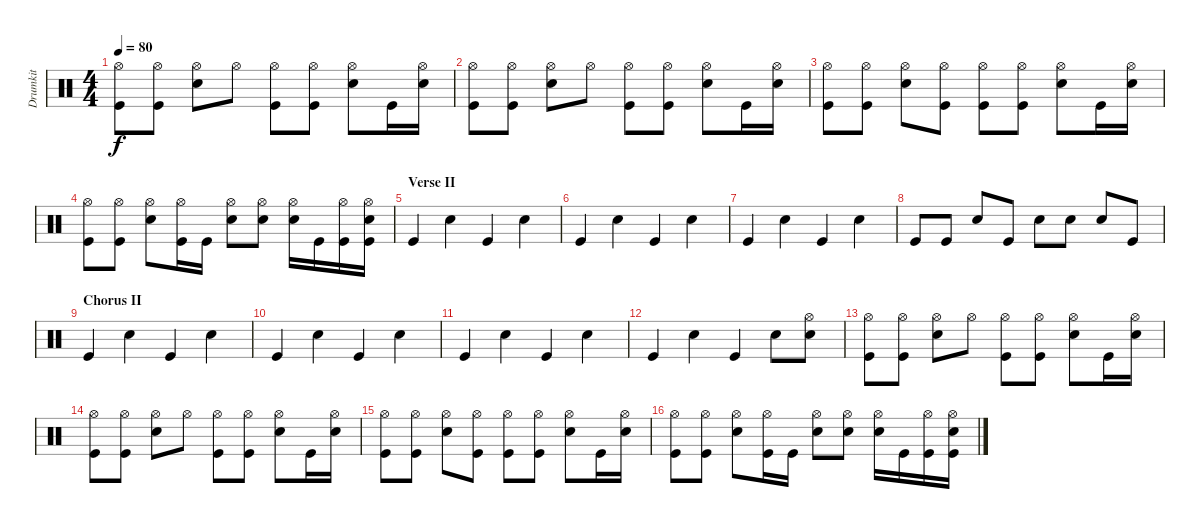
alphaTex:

\track ("Drumkit" "Drumkit") {instrument percussion}
\staff {score}
\articulation defaults
\ts (4 4)
\tempo 80
\clef neutral
\ks c
("Hi-Hat (open)" "Kick (hit)").8{dy f} ("Hi-Hat (open)" "Kick (hit)").8 ("Hi-Hat (open)" "Snare (hit) 2").8 "Hi-Hat (open)".8 ("Hi-Hat (open)" "Kick (hit)").8 ("Hi-Hat (open)" "Kick (hit)").8 ("Hi-Hat (open)" "Snare (hit) 2").8 "Kick (hit)".16 ("Hi-Hat (open)" "Snare (hit) 2").16 |
("Hi-Hat (open)" "Kick (hit)").8 ("Hi-Hat (open)" "Kick (hit)").8 ("Hi-Hat (open)" "Snare (hit) 2").8 "Hi-Hat (open)".8 ("Hi-Hat (open)" "Kick (hit)").8 ("Hi-Hat (open)" "Kick (hit)").8 ("Hi-Hat (open)" "Snare (hit) 2").8 "Kick (hit)".16 ("Hi-Hat (open)" "Snare (hit) 2").16 |
("Hi-Hat (open)" "Kick (hit)").8 ("Hi-Hat (open)" "Kick (hit)").8 ("Hi-Hat (open)" "Snare (hit) 2").8 ("Hi-Hat (open)" "Kick (hit)").8 ("Hi-Hat (open)" "Kick (hit)").8 ("Hi-Hat (open)" "Kick (hit)").8 ("Hi-Hat (open)" "Snare (hit) 2").8 "Kick (hit)".16 ("Hi-Hat (open)" "Snare (hit) 2").16 |
("Hi-Hat (open)" "Kick (hit)").8 ("Hi-Hat (open)" "Kick (hit)").8 ("Hi-Hat (open)" "Snare (hit) 2").8 ("Hi-Hat (open)" "Kick (hit)").16 "Kick (hit)".16 ("Hi-Hat (open)" "Snare (hit) 2").8 ("Hi-Hat (open)" "Snare (hit) 2").8 ("Hi-Hat (open)" "Snare (hit) 2").16 "Kick (hit)".16 ("Hi-Hat (open)" "Kick (hit)").16 ("Hi-Hat (open)" "Snare (hit) 2" "Kick (hit)").16 |
\section ("" "Verse II")
"Kick (hit)".4 "Snare (hit) 2".4 "Kick (hit)".4 "Snare (hit) 2".4 |
"Kick (hit)".4 "Snare (hit) 2".4 "Kick (hit)".4 "Snare (hit) 2".4 |
"Kick (hit)".4 "Snare (hit) 2".4 "Kick (hit)".4 "Snare (hit) 2".4 |
"Kick (hit)".8 "Kick (hit)".8 "Snare (hit) 2".8 "Kick (hit)".8 "Snare (hit) 2".8 "Snare (hit) 2".8 "Snare (hit) 2".8 "Kick (hit)".8 |
\section ("" "Chorus II")
"Kick (hit)".4 "Snare (hit) 2".4 "Kick (hit)".4 "Snare (hit) 2".4 |
"Kick (hit)".4 "Snare (hit) 2".4 "Kick (hit)".4 "Snare (hit) 2".4 |
"Kick (hit)".4 "Snare (hit) 2".4 "Kick (hit)".4 "Snare (hit) 2".4 |
"Kick (hit)".4 "Snare (hit) 2".4 "Kick (hit)".4 "Snare (hit) 2".8 ("Hi-Hat (open)" "Snare (hit) 2").8 |
("Hi-Hat (open)" "Kick (hit)").8 ("Hi-Hat (open)" "Kick (hit)").8 ("Hi-Hat (open)" "Snare (hit) 2").8 "Hi-Hat (open)".8 ("Hi-Hat (open)" "Kick (hit)").8 ("Hi-Hat (open)" "Kick (hit)").8 ("Hi-Hat (open)" "Snare (hit) 2").8 "Kick (hit)".16 ("Hi-Hat (open)" "Snare (hit) 2").16 |
("Hi-Hat (open)" "Kick (hit)").8 ("Hi-Hat (open)" "Kick (hit)").8 ("Hi-Hat (open)" "Snare (hit) 2").8 "Hi-Hat (open)".8 ("Hi-Hat (open)" "Kick (hit)").8 ("Hi-Hat (open)" "Kick (hit)").8 ("Hi-Hat (open)" "Snare (hit) 2").8 "Kick (hit)".16 ("Hi-Hat (open)" "Snare (hit) 2").16 |
("Hi-Hat (open)" "Kick (hit)").8 ("Hi-Hat (open)" "Kick (hit)").8 ("Hi-Hat (open)" "Snare (hit) 2").8 ("Hi-Hat (open)" "Kick (hit)").8 ("Hi-Hat (open)" "Kick (hit)").8 ("Hi-Hat (open)" "Kick (hit)").8 ("Hi-Hat (open)" "Snare (hit) 2").8 "Kick (hit)".16 ("Hi-Hat (open)" "Snare (hit) 2").16 |
("Hi-Hat (open)" "Kick (hit)").8 ("Hi-Hat (open)" "Kick (hit)").8 ("Hi-Hat (open)" "Snare (hit) 2").8 ("Hi-Hat (open)" "Kick (hit)").16 "Kick (hit)".16 ("Hi-Hat (open)" "Snare (hit) 2").8 ("Hi-Hat (open)" "Snare (hit) 2").8 ("Hi-Hat (open)" "Snare (hit) 2").16 "Kick (hit)".16 ("Hi-Hat (open)" "Kick (hit)").16 ("Hi-Hat (open)" "Snare (hit) 2" "Kick (hit)").16
